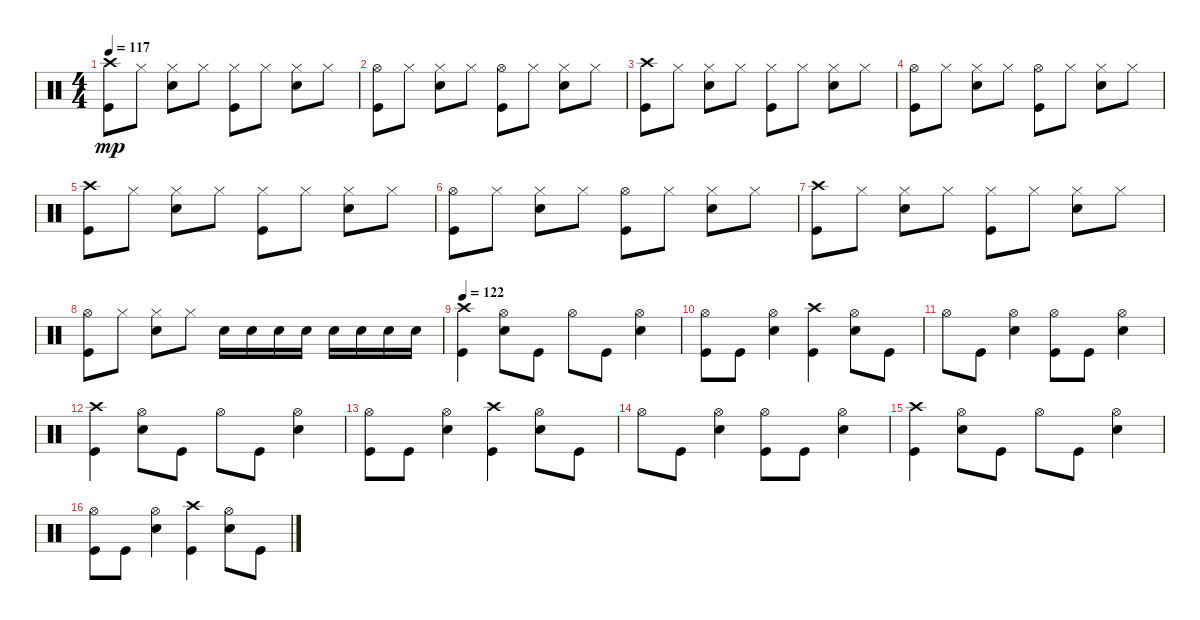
\track "" {instrument percussion}
\staff {score}
\articulation defaults
\ts (4 4)
\tempo 117
\clef neutral
\ks c
("Crash high (hit)" "Kick (hit)").8{dy mp} "Hi-Hat (closed)".8 ("Hi-Hat (closed)" "Snare (hit) 2").8 "Hi-Hat (closed)".8 ("Hi-Hat (closed)" "Kick (hit)").8 "Hi-Hat (closed)".8 ("Hi-Hat (closed)" "Snare (hit) 2").8 "Hi-Hat (closed)".8 |
("Kick (hit)" "Hi-Hat (open)").8 "Hi-Hat (closed)".8 ("Hi-Hat (closed)" "Snare (hit) 2").8 "Hi-Hat (closed)".8 ("Kick (hit)" "Hi-Hat (open)").8 "Hi-Hat (closed)".8 ("Hi-Hat (closed)" "Snare (hit) 2").8 "Hi-Hat (closed)".8 |
("Crash high (hit)" "Kick (hit)").8 "Hi-Hat (closed)".8 ("Hi-Hat (closed)" "Snare (hit) 2").8 "Hi-Hat (closed)".8 ("Hi-Hat (closed)" "Kick (hit)").8 "Hi-Hat (closed)".8 ("Hi-Hat (closed)" "Snare (hit) 2").8 "Hi-Hat (closed)".8 |
("Kick (hit)" "Hi-Hat (open)").8 "Hi-Hat (closed)".8 ("Hi-Hat (closed)" "Snare (hit) 2").8 "Hi-Hat (closed)".8 ("Kick (hit)" "Hi-Hat (open)").8 "Hi-Hat (closed)".8 ("Hi-Hat (closed)" "Snare (hit) 2").8 "Hi-Hat (closed)".8 |
("Crash high (hit)" "Kick (hit)").8 "Hi-Hat (closed)".8 ("Hi-Hat (closed)" "Snare (hit) 2").8 "Hi-Hat (closed)".8 ("Hi-Hat (closed)" "Kick (hit)").8 "Hi-Hat (closed)".8 ("Hi-Hat (closed)" "Snare (hit) 2").8 "Hi-Hat (closed)".8 |
("Kick (hit)" "Hi-Hat (open)").8 "Hi-Hat (closed)".8 ("Hi-Hat (closed)" "Snare (hit) 2").8 "Hi-Hat (closed)".8 ("Kick (hit)" "Hi-Hat (open)").8 "Hi-Hat (closed)".8 ("Hi-Hat (closed)" "Snare (hit) 2").8 "Hi-Hat (closed)".8 |
("Crash high (hit)" "Kick (hit)").8 "Hi-Hat (closed)".8 ("Hi-Hat (closed)" "Snare (hit) 2").8 "Hi-Hat (closed)".8 ("Hi-Hat (closed)" "Kick (hit)").8 "Hi-Hat (closed)".8 ("Hi-Hat (closed)" "Snare (hit) 2").8 "Hi-Hat (closed)".8 |
("Kick (hit)" "Hi-Hat (open)").8 "Hi-Hat (closed)".8 ("Hi-Hat (closed)" "Snare (hit) 2").8 "Hi-Hat (closed)".8 "Snare (hit) 2".16 "Snare (hit) 2".16 "Snare (hit) 2".16 "Snare (hit) 2".16 "Snare (hit) 2".16 "Snare (hit) 2".16 "Snare (hit) 2".16 "Snare (hit) 2".16 |
\tempo 122
("Kick (hit)" "Crash high (hit)").4 ("Snare (hit) 2" "Hi-Hat (open)").8 "Kick (hit)".8 "Hi-Hat (open)".8 "Kick (hit)".8 ("Snare (hit) 2" "Hi-Hat (open)").4 |
("Hi-Hat (open)" "Kick (hit)").8 "Kick (hit)".8 ("Snare (hit) 2" "Hi-Hat (open)").4 ("Kick (hit)" "Crash high (hit)").4 ("Snare (hit) 2" "Hi-Hat (open)").8 "Kick (hit)".8 |
"Hi-Hat (open)".8 "Kick (hit)".8 ("Snare (hit) 2" "Hi-Hat (open)").4 ("Hi-Hat (open)" "Kick (hit)").8 "Kick (hit)".8 ("Snare (hit) 2" "Hi-Hat (open)").4 |
("Kick (hit)" "Crash high (hit)").4 ("Snare (hit) 2" "Hi-Hat (open)").8 "Kick (hit)".8 "Hi-Hat (open)".8 "Kick (hit)".8 ("Snare (hit) 2" "Hi-Hat (open)").4 |
("Hi-Hat (open)" "Kick (hit)").8 "Kick (hit)".8 ("Snare (hit) 2" "Hi-Hat (open)").4 ("Kick (hit)" "Crash high (hit)").4 ("Snare (hit) 2" "Hi-Hat (open)").8 "Kick (hit)".8 |
"Hi-Hat (open)".8 "Kick (hit)".8 ("Snare (hit) 2" "Hi-Hat (open)").4 ("Hi-Hat (open)" "Kick (hit)").8 "Kick (hit)".8 ("Snare (hit) 2" "Hi-Hat (open)").4 |
("Kick (hit)" "Crash high (hit)").4 ("Snare (hit) 2" "Hi-Hat (open)").8 "Kick (hit)".8 "Hi-Hat (open)".8 "Kick (hit)".8 ("Snare (hit) 2" "Hi-Hat (open)").4 |
("Hi-Hat (open)" "Kick (hit)").8 "Kick (hit)".8 ("Snare (hit) 2" "Hi-Hat (open)").4 ("Kick (hit)" "Crash high (hit)").4 ("Snare (hit) 2" "Hi-Hat (open)").8 "Kick (hit)".8
